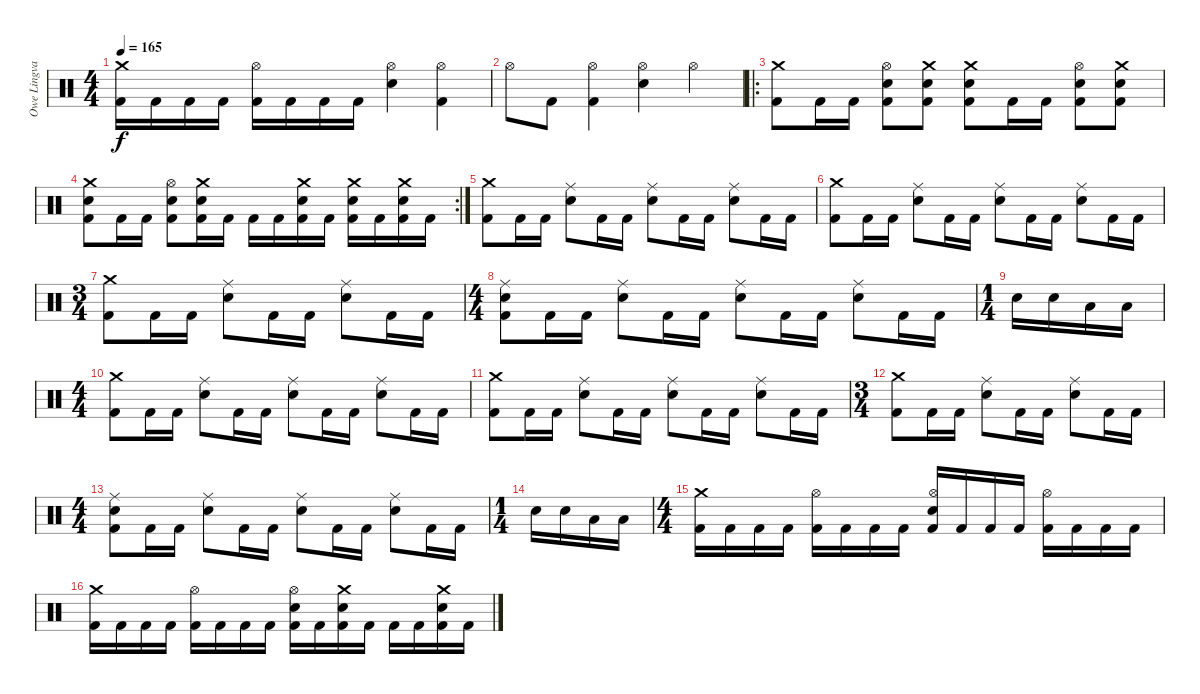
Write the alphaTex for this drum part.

\track ("Owe Lingvall" "Owe Lingva") {instrument percussion}
\staff {score}
\articulation defaults
\ts (4 4)
\tempo 165
\clef neutral
\ks c
("Crash medium (hit)" "Kick (hit) 2").16{dy f} "Kick (hit) 2".16 "Kick (hit) 2".16 "Kick (hit) 2".16 ("Hi-Hat (open)" "Kick (hit) 2").16 "Kick (hit) 2".16 "Kick (hit) 2".16 "Kick (hit) 2".16 ("Hi-Hat (open)" "Snare (hit) 2").4 ("Hi-Hat (open)" "Kick (hit) 2").4 |
"Hi-Hat (open)".8 "Kick (hit) 2".8 ("Hi-Hat (open)" "Kick (hit) 2").4 ("Hi-Hat (open)" "Snare (hit) 2").4 "Hi-Hat (open)".4 |
\ro
("Crash medium (hit)" "Kick (hit) 2").8 "Kick (hit) 2".16 "Kick (hit) 2".16 ("Hi-Hat (open)" "Snare (hit) 2" "Kick (hit) 2").8 ("Crash medium (hit)" "Snare (hit) 2" "Kick (hit) 2").8 ("Crash medium (hit)" "Snare (hit) 2" "Kick (hit) 2").8 "Kick (hit) 2".16 "Kick (hit) 2".16 ("Hi-Hat (open)" "Snare (hit) 2" "Kick (hit) 2").8 ("Crash medium (hit)" "Snare (hit) 2" "Kick (hit) 2").8 |
\rc 2
("Crash medium (hit)" "Snare (hit) 2" "Kick (hit) 2").8 "Kick (hit) 2".16 "Kick (hit) 2".16 ("Hi-Hat (open)" "Snare (hit) 2" "Kick (hit) 2").8 ("Crash medium (hit)" "Snare (hit) 2" "Kick (hit) 2").16 "Kick (hit) 2".16 "Kick (hit) 2".16 "Kick (hit) 2".16 ("Crash medium (hit)" "Snare (hit) 2" "Kick (hit) 2").16 "Kick (hit) 2".16 ("Crash medium (hit)" "Snare (hit) 2" "Kick (hit) 2").16 "Kick (hit) 2".16 ("Crash medium (hit)" "Snare (hit) 2" "Kick (hit) 2").16 "Kick (hit) 2".16 |
("Crash medium (hit)" "Kick (hit) 2").8 "Kick (hit) 2".16 "Kick (hit) 2".16 ("Ride (middle)" "Snare (hit) 2").8 "Kick (hit) 2".16 "Kick (hit) 2".16 ("Ride (middle)" "Snare (hit) 2").8 "Kick (hit) 2".16 "Kick (hit) 2".16 ("Ride (middle)" "Snare (hit) 2").8 "Kick (hit) 2".16 "Kick (hit) 2".16 |
("Crash medium (hit)" "Kick (hit) 2").8 "Kick (hit) 2".16 "Kick (hit) 2".16 ("Ride (middle)" "Snare (hit) 2").8 "Kick (hit) 2".16 "Kick (hit) 2".16 ("Ride (middle)" "Snare (hit) 2").8 "Kick (hit) 2".16 "Kick (hit) 2".16 ("Ride (middle)" "Snare (hit) 2").8 "Kick (hit) 2".16 "Kick (hit) 2".16 |
\ts (3 4)
("Crash medium (hit)" "Kick (hit) 2").8 "Kick (hit) 2".16 "Kick (hit) 2".16 ("Ride (middle)" "Snare (hit) 2").8 "Kick (hit) 2".16 "Kick (hit) 2".16 ("Ride (middle)" "Snare (hit) 2").8 "Kick (hit) 2".16 "Kick (hit) 2".16 |
\ts (4 4)
("Ride (middle)" "Snare (hit) 2" "Kick (hit) 2").8 "Kick (hit) 2".16 "Kick (hit) 2".16 ("Ride (middle)" "Snare (hit) 2").8 "Kick (hit) 2".16 "Kick (hit) 2".16 ("Ride (middle)" "Snare (hit) 2").8 "Kick (hit) 2".16 "Kick (hit) 2".16 ("Ride (middle)" "Snare (hit) 2").8 "Kick (hit) 2".16 "Kick (hit) 2".16 |
\ts (1 4)
"Snare (hit) 2".16 "Snare (hit) 2".16 "Low Tom (hit)".16 "Low Tom (hit)".16 |
\ts (4 4)
("Crash medium (hit)" "Kick (hit) 2").8 "Kick (hit) 2".16 "Kick (hit) 2".16 ("Ride (middle)" "Snare (hit) 2").8 "Kick (hit) 2".16 "Kick (hit) 2".16 ("Ride (middle)" "Snare (hit) 2").8 "Kick (hit) 2".16 "Kick (hit) 2".16 ("Ride (middle)" "Snare (hit) 2").8 "Kick (hit) 2".16 "Kick (hit) 2".16 |
("Crash medium (hit)" "Kick (hit) 2").8 "Kick (hit) 2".16 "Kick (hit) 2".16 ("Ride (middle)" "Snare (hit) 2").8 "Kick (hit) 2".16 "Kick (hit) 2".16 ("Ride (middle)" "Snare (hit) 2").8 "Kick (hit) 2".16 "Kick (hit) 2".16 ("Ride (middle)" "Snare (hit) 2").8 "Kick (hit) 2".16 "Kick (hit) 2".16 |
\ts (3 4)
("Crash medium (hit)" "Kick (hit) 2").8 "Kick (hit) 2".16 "Kick (hit) 2".16 ("Ride (middle)" "Snare (hit) 2").8 "Kick (hit) 2".16 "Kick (hit) 2".16 ("Ride (middle)" "Snare (hit) 2").8 "Kick (hit) 2".16 "Kick (hit) 2".16 |
\ts (4 4)
("Ride (middle)" "Snare (hit) 2" "Kick (hit) 2").8 "Kick (hit) 2".16 "Kick (hit) 2".16 ("Ride (middle)" "Snare (hit) 2").8 "Kick (hit) 2".16 "Kick (hit) 2".16 ("Ride (middle)" "Snare (hit) 2").8 "Kick (hit) 2".16 "Kick (hit) 2".16 ("Ride (middle)" "Snare (hit) 2").8 "Kick (hit) 2".16 "Kick (hit) 2".16 |
\ts (1 4)
"Snare (hit) 2".16 "Snare (hit) 2".16 "Low Tom (hit)".16 "Low Tom (hit)".16 |
\ts (4 4)
("Crash medium (hit)" "Kick (hit) 2").16 "Kick (hit) 2".16 "Kick (hit) 2".16 "Kick (hit) 2".16 ("Hi-Hat (open)" "Kick (hit) 2").16 "Kick (hit) 2".16 "Kick (hit) 2".16 "Kick (hit) 2".16 ("Hi-Hat (open)" "Snare (hit) 2" "Kick (hit) 2").16 "Kick (hit) 2".16 "Kick (hit) 2".16 "Kick (hit) 2".16 ("Hi-Hat (open)" "Kick (hit) 2").16 "Kick (hit) 2".16 "Kick (hit) 2".16 "Kick (hit) 2".16 |
("Crash medium (hit)" "Kick (hit) 2").16 "Kick (hit) 2".16 "Kick (hit) 2".16 "Kick (hit) 2".16 ("Hi-Hat (open)" "Kick (hit) 2").16 "Kick (hit) 2".16 "Kick (hit) 2".16 "Kick (hit) 2".16 ("Hi-Hat (open)" "Snare (hit) 2" "Kick (hit) 2").16 "Kick (hit) 2".16 ("Crash medium (hit)" "Snare (hit) 2" "Kick (hit) 2").16 "Kick (hit) 2".16 "Kick (hit) 2".16 "Kick (hit) 2".16 ("Crash medium (hit)" "Snare (hit) 2" "Kick (hit) 2").16 "Kick (hit) 2".16
